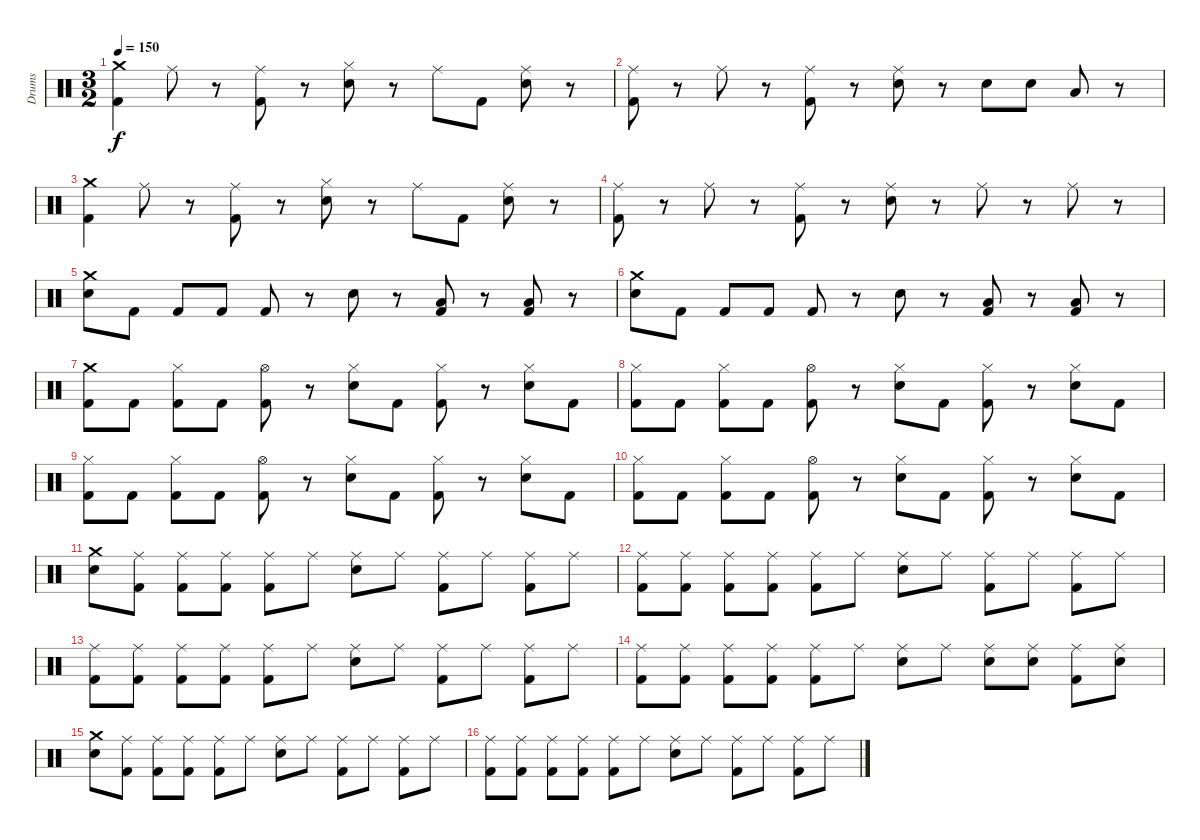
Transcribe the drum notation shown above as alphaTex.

\track ("Drums" "Drums") {instrument percussion}
\staff {score}
\articulation defaults
\ts (3 2)
\tempo 150
\clef neutral
\ks c
("Crash medium (hit)" "Kick (hit) 2").4{dy f} "Ride (middle)".8 r.8 ("Kick (hit) 2" "Ride (middle)").8 r.8 ("Electric Snare (hit)" "Hi-Hat (closed)").8 r.8 "Ride (middle)".8 "Kick (hit) 2".8 ("Electric Snare (hit)" "Ride (middle)").8 r.8 |
("Kick (hit) 2" "Ride (middle)").8 r.8 "Ride (middle)".8 r.8 ("Kick (hit) 2" "Ride (middle)").8 r.8 ("Electric Snare (hit)" "Ride (middle)").8 r.8 "Electric Snare (hit)".8 "Electric Snare (hit)".8 "Low Floor Tom (hit)".8 r.8 |
("Kick (hit) 2" "Crash medium (hit)").4 "Ride (middle)".8 r.8 ("Kick (hit) 2" "Ride (middle)").8 r.8 ("Electric Snare (hit)" "Hi-Hat (closed)").8 r.8 "Ride (middle)".8 "Kick (hit) 2".8 ("Ride (middle)" "Electric Snare (hit)").8 r.8 |
("Ride (middle)" "Kick (hit) 2").8 r.8 "Ride (middle)".8 r.8 ("Kick (hit) 2" "Ride (middle)").8 r.8 ("Electric Snare (hit)" "Ride (middle)").8 r.8 "Ride (middle)".8 r.8 "Ride (middle)".8 r.8 |
("Electric Snare (hit)" "Crash medium (hit)").8 "Kick (hit) 2".8 "Kick (hit) 2".8 "Kick (hit) 2".8 "Kick (hit) 2".8 r.8 "Electric Snare (hit)".8 r.8 ("Low Floor Tom (hit)" "Kick (hit) 2").8 r.8 ("Kick (hit) 2" "Low Floor Tom (hit)").8 r.8 |
("Electric Snare (hit)" "Crash medium (hit)").8 "Kick (hit) 2".8 "Kick (hit) 2".8 "Kick (hit) 2".8 "Kick (hit) 2".8 r.8 "Electric Snare (hit)".8 r.8 ("Kick (hit) 2" "Low Floor Tom (hit)").8 r.8 ("Low Floor Tom (hit)" "Kick (hit) 2").8 r.8 |
("Kick (hit) 2" "Crash medium (hit)").8 "Kick (hit) 2".8 ("Kick (hit) 2" "Hi-Hat (closed)").8 "Kick (hit) 2".8 ("Kick (hit) 2" "Hi-Hat (open)").8 r.8 ("Hi-Hat (closed)" "Electric Snare (hit)").8 "Kick (hit) 2".8 ("Hi-Hat (closed)" "Kick (hit) 2").8 r.8 ("Electric Snare (hit)" "Hi-Hat (closed)").8 "Kick (hit) 2".8 |
("Kick (hit) 2" "Hi-Hat (closed)").8 "Kick (hit) 2".8 ("Kick (hit) 2" "Hi-Hat (closed)").8 "Kick (hit) 2".8 ("Hi-Hat (open)" "Kick (hit) 2").8 r.8 ("Hi-Hat (closed)" "Electric Snare (hit)").8 "Kick (hit) 2".8 ("Hi-Hat (closed)" "Kick (hit) 2").8 r.8 ("Hi-Hat (closed)" "Electric Snare (hit)").8 "Kick (hit) 2".8 |
("Kick (hit) 2" "Hi-Hat (closed)").8 "Kick (hit) 2".8 ("Hi-Hat (closed)" "Kick (hit) 2").8 "Kick (hit) 2".8 ("Kick (hit) 2" "Hi-Hat (open)").8 r.8 ("Electric Snare (hit)" "Hi-Hat (closed)").8 "Kick (hit) 2".8 ("Hi-Hat (closed)" "Kick (hit) 2").8 r.8 ("Hi-Hat (closed)" "Electric Snare (hit)").8 "Kick (hit) 2".8 |
("Kick (hit) 2" "Hi-Hat (closed)").8 "Kick (hit) 2".8 ("Kick (hit) 2" "Hi-Hat (closed)").8 "Kick (hit) 2".8 ("Kick (hit) 2" "Hi-Hat (open)").8 r.8 ("Hi-Hat (closed)" "Electric Snare (hit)").8 "Kick (hit) 2".8 ("Hi-Hat (closed)" "Kick (hit) 2").8 r.8 ("Hi-Hat (closed)" "Electric Snare (hit)").8 "Kick (hit) 2".8 |
("Crash medium (hit)" "Electric Snare (hit)").8 ("Kick (hit) 2" "Ride (middle)").8 ("Kick (hit) 2" "Ride (middle)").8 ("Ride (middle)" "Kick (hit) 2").8 ("Kick (hit) 2" "Ride (middle)").8 "Ride (middle)".8 ("Ride (middle)" "Electric Snare (hit)").8 "Ride (middle)".8 ("Ride (middle)" "Kick (hit) 2").8 "Ride (middle)".8 ("Kick (hit) 2" "Ride (middle)").8 "Ride (middle)".8 |
("Kick (hit) 2" "Ride (middle)").8 ("Ride (middle)" "Kick (hit) 2").8 ("Ride (middle)" "Kick (hit) 2").8 ("Kick (hit) 2" "Ride (middle)").8 ("Kick (hit) 2" "Ride (middle)").8 "Ride (middle)".8 ("Ride (middle)" "Electric Snare (hit)").8 "Ride (middle)".8 ("Ride (middle)" "Kick (hit) 2").8 "Ride (middle)".8 ("Kick (hit) 2" "Ride (middle)").8 "Ride (middle)".8 |
("Ride (middle)" "Kick (hit) 2").8 ("Kick (hit) 2" "Ride (middle)").8 ("Kick (hit) 2" "Ride (middle)").8 ("Ride (middle)" "Kick (hit) 2").8 ("Kick (hit) 2" "Ride (middle)").8 "Ride (middle)".8 ("Electric Snare (hit)" "Ride (middle)").8 "Ride (middle)".8 ("Ride (middle)" "Kick (hit) 2").8 "Ride (middle)".8 ("Ride (middle)" "Kick (hit) 2").8 "Ride (middle)".8 |
("Kick (hit) 2" "Ride (middle)").8 ("Kick (hit) 2" "Ride (middle)").8 ("Ride (middle)" "Kick (hit) 2").8 ("Ride (middle)" "Kick (hit) 2").8 ("Kick (hit) 2" "Ride (middle)").8 "Ride (middle)".8 ("Electric Snare (hit)" "Ride (middle)").8 "Ride (middle)".8 ("Ride (middle)" "Electric Snare (hit)").8 ("Ride (middle)" "Electric Snare (hit)").8 ("Ride (middle)" "Kick (hit) 2").8 ("Ride (middle)" "Electric Snare (hit)").8 |
("Crash medium (hit)" "Electric Snare (hit)").8 ("Ride (middle)" "Kick (hit) 2").8 ("Kick (hit) 2" "Ride (middle)").8 ("Ride (middle)" "Kick (hit) 2").8 ("Ride (middle)" "Kick (hit) 2").8 "Ride (middle)".8 ("Ride (middle)" "Electric Snare (hit)").8 "Ride (middle)".8 ("Kick (hit) 2" "Ride (middle)").8 "Ride (middle)".8 ("Kick (hit) 2" "Ride (middle)").8 "Ride (middle)".8 |
("Ride (middle)" "Kick (hit) 2").8 ("Kick (hit) 2" "Ride (middle)").8 ("Ride (middle)" "Kick (hit) 2").8 ("Kick (hit) 2" "Ride (middle)").8 ("Ride (middle)" "Kick (hit) 2").8 "Ride (middle)".8 ("Electric Snare (hit)" "Ride (middle)").8 "Ride (middle)".8 ("Ride (middle)" "Kick (hit) 2").8 "Ride (middle)".8 ("Kick (hit) 2" "Ride (middle)").8 "Ride (middle)".8
